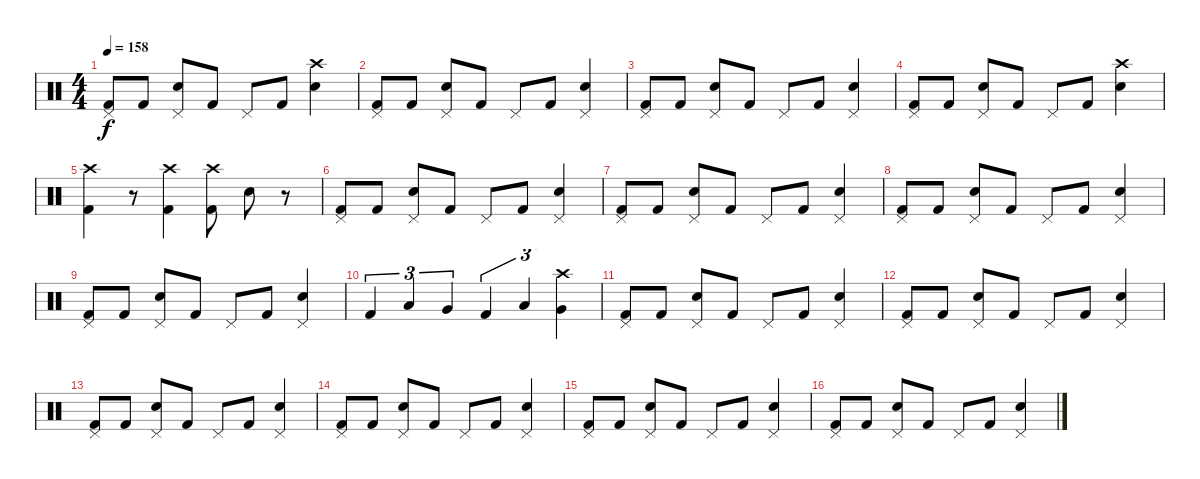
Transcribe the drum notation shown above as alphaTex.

\track "" {instrument percussion}
\staff {score}
\articulation defaults
\ts (4 4)
\tempo 158
\clef neutral
\ks c
("Pedal Hi-Hat (hit)" "Kick (hit) 2").8{dy f} "Kick (hit) 2".8 ("Pedal Hi-Hat (hit)" "Electric Snare (hit)").8 "Kick (hit) 2".8 "Pedal Hi-Hat (hit)".8 "Kick (hit) 2".8 ("Crash high (hit)" "Electric Snare (hit)").4 |
("Pedal Hi-Hat (hit)" "Kick (hit) 2").8 "Kick (hit) 2".8 ("Pedal Hi-Hat (hit)" "Electric Snare (hit)").8 "Kick (hit) 2".8 "Pedal Hi-Hat (hit)".8 "Kick (hit) 2".8 ("Pedal Hi-Hat (hit)" "Electric Snare (hit)").4 |
("Pedal Hi-Hat (hit)" "Kick (hit) 2").8 "Kick (hit) 2".8 ("Pedal Hi-Hat (hit)" "Electric Snare (hit)").8 "Kick (hit) 2".8 "Pedal Hi-Hat (hit)".8 "Kick (hit) 2".8 ("Pedal Hi-Hat (hit)" "Electric Snare (hit)").4 |
("Pedal Hi-Hat (hit)" "Kick (hit) 2").8 "Kick (hit) 2".8 ("Pedal Hi-Hat (hit)" "Electric Snare (hit)").8 "Kick (hit) 2".8 "Pedal Hi-Hat (hit)".8 "Kick (hit) 2".8 ("Crash high (hit)" "Electric Snare (hit)").4 |
("Crash high (hit)" "Kick (hit) 2").4 r.8 ("Crash high (hit)" "Kick (hit) 2").4 ("Crash high (hit)" "Kick (hit) 2").8 "Electric Snare (hit)".8 r.8 |
("Pedal Hi-Hat (hit)" "Kick (hit) 2").8 "Kick (hit) 2".8 ("Pedal Hi-Hat (hit)" "Electric Snare (hit)").8 "Kick (hit) 2".8 "Pedal Hi-Hat (hit)".8 "Kick (hit) 2".8 ("Pedal Hi-Hat (hit)" "Electric Snare (hit)").4 |
("Pedal Hi-Hat (hit)" "Kick (hit) 2").8 "Kick (hit) 2".8 ("Pedal Hi-Hat (hit)" "Electric Snare (hit)").8 "Kick (hit) 2".8 "Pedal Hi-Hat (hit)".8 "Kick (hit) 2".8 ("Pedal Hi-Hat (hit)" "Electric Snare (hit)").4 |
("Pedal Hi-Hat (hit)" "Kick (hit) 2").8 "Kick (hit) 2".8 ("Pedal Hi-Hat (hit)" "Electric Snare (hit)").8 "Kick (hit) 2".8 "Pedal Hi-Hat (hit)".8 "Kick (hit) 2".8 ("Pedal Hi-Hat (hit)" "Electric Snare (hit)").4 |
("Pedal Hi-Hat (hit)" "Kick (hit) 2").8 "Kick (hit) 2".8 ("Pedal Hi-Hat (hit)" "Electric Snare (hit)").8 "Kick (hit) 2".8 "Pedal Hi-Hat (hit)".8 "Kick (hit) 2".8 ("Pedal Hi-Hat (hit)" "Electric Snare (hit)").4 |
"Kick (hit) 2".4{tu (3 2)} "Low Floor Tom (hit)".4{tu (3 2)} "Very Low Tom (hit)".4{tu (3 2)} "Kick (hit) 2".4{tu (3 2)} "Low Floor Tom (hit)".4{tu (3 2)} ("Crash high (hit)" "Very Low Tom (hit)").4{tu (3 2)} |
("Pedal Hi-Hat (hit)" "Kick (hit) 2").8 "Kick (hit) 2".8 ("Pedal Hi-Hat (hit)" "Electric Snare (hit)").8 "Kick (hit) 2".8 "Pedal Hi-Hat (hit)".8 "Kick (hit) 2".8 ("Pedal Hi-Hat (hit)" "Electric Snare (hit)").4 |
("Pedal Hi-Hat (hit)" "Kick (hit) 2").8 "Kick (hit) 2".8 ("Pedal Hi-Hat (hit)" "Electric Snare (hit)").8 "Kick (hit) 2".8 "Pedal Hi-Hat (hit)".8 "Kick (hit) 2".8 ("Pedal Hi-Hat (hit)" "Electric Snare (hit)").4 |
("Pedal Hi-Hat (hit)" "Kick (hit) 2").8 "Kick (hit) 2".8 ("Pedal Hi-Hat (hit)" "Electric Snare (hit)").8 "Kick (hit) 2".8 "Pedal Hi-Hat (hit)".8 "Kick (hit) 2".8 ("Pedal Hi-Hat (hit)" "Electric Snare (hit)").4 |
("Pedal Hi-Hat (hit)" "Kick (hit) 2").8 "Kick (hit) 2".8 ("Pedal Hi-Hat (hit)" "Electric Snare (hit)").8 "Kick (hit) 2".8 "Pedal Hi-Hat (hit)".8 "Kick (hit) 2".8 ("Pedal Hi-Hat (hit)" "Electric Snare (hit)").4 |
("Pedal Hi-Hat (hit)" "Kick (hit) 2").8 "Kick (hit) 2".8 ("Pedal Hi-Hat (hit)" "Electric Snare (hit)").8 "Kick (hit) 2".8 "Pedal Hi-Hat (hit)".8 "Kick (hit) 2".8 ("Pedal Hi-Hat (hit)" "Electric Snare (hit)").4 |
("Pedal Hi-Hat (hit)" "Kick (hit) 2").8 "Kick (hit) 2".8 ("Pedal Hi-Hat (hit)" "Electric Snare (hit)").8 "Kick (hit) 2".8 "Pedal Hi-Hat (hit)".8 "Kick (hit) 2".8 ("Pedal Hi-Hat (hit)" "Electric Snare (hit)").4
